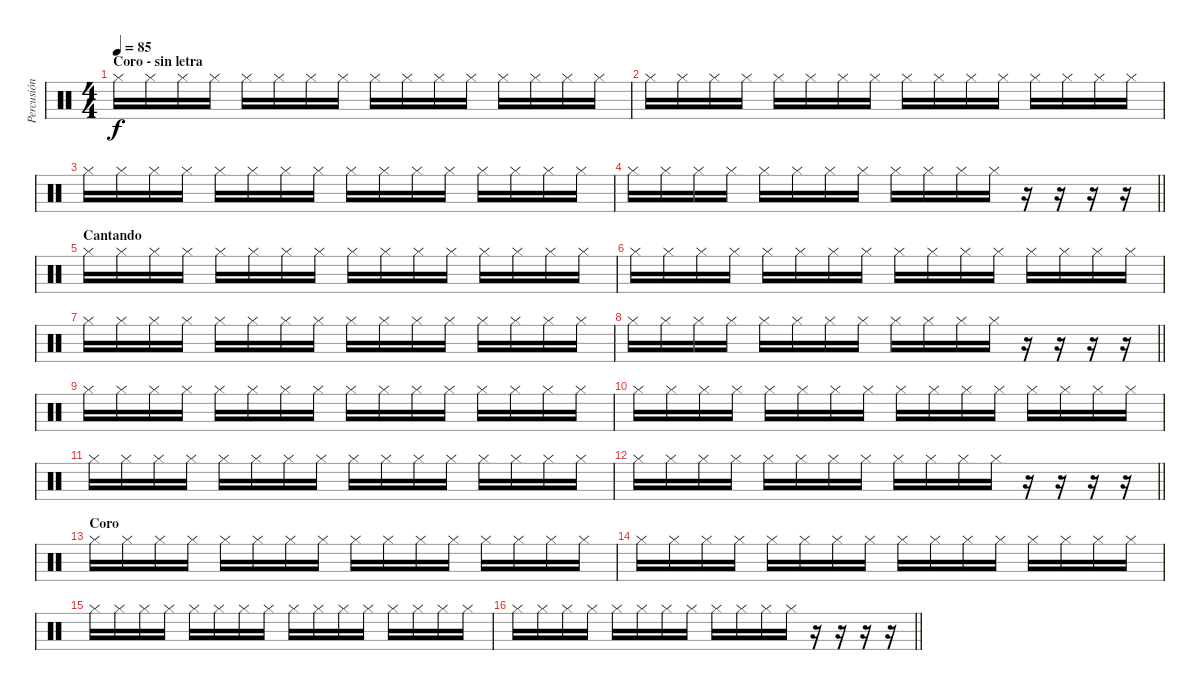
\track ("Percusión" "Percusión") {instrument percussion}
\staff {score}
\articulation defaults
\ts (4 4)
\section ("" "Coro - sin letra")
\tempo 85
\clef neutral
\ks c "Hi-Hat (closed)".16{dy f} "Hi-Hat (closed)".16 "Hi-Hat (closed)".16 "Hi-Hat (closed)".16 "Hi-Hat (closed)".16 "Hi-Hat (closed)".16 "Hi-Hat (closed)".16 "Hi-Hat (closed)".16 "Hi-Hat (closed)".16 "Hi-Hat (closed)".16 "Hi-Hat (closed)".16 "Hi-Hat (closed)".16 "Hi-Hat (closed)".16 "Hi-Hat (closed)".16 "Hi-Hat (closed)".16 "Hi-Hat (closed)".16
|
"Hi-Hat (closed)".16 "Hi-Hat (closed)".16 "Hi-Hat (closed)".16 "Hi-Hat (closed)".16 "Hi-Hat (closed)".16 "Hi-Hat (closed)".16 "Hi-Hat (closed)".16 "Hi-Hat (closed)".16 "Hi-Hat (closed)".16 "Hi-Hat (closed)".16 "Hi-Hat (closed)".16 "Hi-Hat (closed)".16 "Hi-Hat (closed)".16 "Hi-Hat (closed)".16 "Hi-Hat (closed)".16 "Hi-Hat (closed)".16 |
"Hi-Hat (closed)".16 "Hi-Hat (closed)".16 "Hi-Hat (closed)".16 "Hi-Hat (closed)".16 "Hi-Hat (closed)".16 "Hi-Hat (closed)".16 "Hi-Hat (closed)".16 "Hi-Hat (closed)".16 "Hi-Hat (closed)".16 "Hi-Hat (closed)".16 "Hi-Hat (closed)".16 "Hi-Hat (closed)".16 "Hi-Hat (closed)".16 "Hi-Hat (closed)".16 "Hi-Hat (closed)".16 "Hi-Hat (closed)".16 |
\barLineRight lightlight "Hi-Hat (closed)".16 "Hi-Hat (closed)".16 "Hi-Hat (closed)".16 "Hi-Hat (closed)".16 "Hi-Hat (closed)".16 "Hi-Hat (closed)".16 "Hi-Hat (closed)".16 "Hi-Hat (closed)".16 "Hi-Hat (closed)".16 "Hi-Hat (closed)".16 "Hi-Hat (closed)".16 "Hi-Hat (closed)".16
r.16 r.16 r.16 r.16 |
\section ("" "Cantando")
"Hi-Hat (closed)".16 "Hi-Hat (closed)".16 "Hi-Hat (closed)".16 "Hi-Hat (closed)".16 "Hi-Hat (closed)".16 "Hi-Hat (closed)".16 "Hi-Hat (closed)".16 "Hi-Hat (closed)".16 "Hi-Hat (closed)".16 "Hi-Hat (closed)".16 "Hi-Hat (closed)".16 "Hi-Hat (closed)".16 "Hi-Hat (closed)".16 "Hi-Hat (closed)".16 "Hi-Hat (closed)".16 "Hi-Hat (closed)".16 |
"Hi-Hat (closed)".16 "Hi-Hat (closed)".16 "Hi-Hat (closed)".16 "Hi-Hat (closed)".16 "Hi-Hat (closed)".16 "Hi-Hat (closed)".16 "Hi-Hat (closed)".16 "Hi-Hat (closed)".16 "Hi-Hat (closed)".16 "Hi-Hat (closed)".16 "Hi-Hat (closed)".16 "Hi-Hat (closed)".16 "Hi-Hat (closed)".16 "Hi-Hat (closed)".16 "Hi-Hat (closed)".16 "Hi-Hat (closed)".16 |
"Hi-Hat (closed)".16 "Hi-Hat (closed)".16 "Hi-Hat (closed)".16 "Hi-Hat (closed)".16 "Hi-Hat (closed)".16 "Hi-Hat (closed)".16 "Hi-Hat (closed)".16 "Hi-Hat (closed)".16 "Hi-Hat (closed)".16 "Hi-Hat (closed)".16 "Hi-Hat (closed)".16 "Hi-Hat (closed)".16 "Hi-Hat (closed)".16 "Hi-Hat (closed)".16 "Hi-Hat (closed)".16 "Hi-Hat (closed)".16 |
\barLineRight lightlight "Hi-Hat (closed)".16 "Hi-Hat (closed)".16 "Hi-Hat (closed)".16 "Hi-Hat (closed)".16 "Hi-Hat (closed)".16 "Hi-Hat (closed)".16 "Hi-Hat (closed)".16 "Hi-Hat (closed)".16 "Hi-Hat (closed)".16 "Hi-Hat (closed)".16 "Hi-Hat (closed)".16 "Hi-Hat (closed)".16
r.16 r.16 r.16 r.16 |
"Hi-Hat (closed)".16 "Hi-Hat (closed)".16 "Hi-Hat (closed)".16 "Hi-Hat (closed)".16 "Hi-Hat (closed)".16 "Hi-Hat (closed)".16 "Hi-Hat (closed)".16 "Hi-Hat (closed)".16 "Hi-Hat (closed)".16 "Hi-Hat (closed)".16 "Hi-Hat (closed)".16 "Hi-Hat (closed)".16 "Hi-Hat (closed)".16 "Hi-Hat (closed)".16 "Hi-Hat (closed)".16 "Hi-Hat (closed)".16 |
"Hi-Hat (closed)".16 "Hi-Hat (closed)".16 "Hi-Hat (closed)".16 "Hi-Hat (closed)".16 "Hi-Hat (closed)".16 "Hi-Hat (closed)".16 "Hi-Hat (closed)".16 "Hi-Hat (closed)".16 "Hi-Hat (closed)".16 "Hi-Hat (closed)".16 "Hi-Hat (closed)".16 "Hi-Hat (closed)".16 "Hi-Hat (closed)".16 "Hi-Hat (closed)".16 "Hi-Hat (closed)".16 "Hi-Hat (closed)".16 |
"Hi-Hat (closed)".16 "Hi-Hat (closed)".16 "Hi-Hat (closed)".16 "Hi-Hat (closed)".16 "Hi-Hat (closed)".16 "Hi-Hat (closed)".16 "Hi-Hat (closed)".16 "Hi-Hat (closed)".16 "Hi-Hat (closed)".16 "Hi-Hat (closed)".16 "Hi-Hat (closed)".16 "Hi-Hat (closed)".16 "Hi-Hat (closed)".16 "Hi-Hat (closed)".16 "Hi-Hat (closed)".16 "Hi-Hat (closed)".16 |
\barLineRight lightlight "Hi-Hat (closed)".16 "Hi-Hat (closed)".16 "Hi-Hat (closed)".16 "Hi-Hat (closed)".16 "Hi-Hat (closed)".16 "Hi-Hat (closed)".16 "Hi-Hat (closed)".16 "Hi-Hat (closed)".16 "Hi-Hat (closed)".16 "Hi-Hat (closed)".16 "Hi-Hat (closed)".16 "Hi-Hat (closed)".16
r.16 r.16 r.16 r.16 |
\section ("" "Coro")
"Hi-Hat (closed)".16 "Hi-Hat (closed)".16 "Hi-Hat (closed)".16 "Hi-Hat (closed)".16 "Hi-Hat (closed)".16 "Hi-Hat (closed)".16 "Hi-Hat (closed)".16 "Hi-Hat (closed)".16 "Hi-Hat (closed)".16 "Hi-Hat (closed)".16 "Hi-Hat (closed)".16 "Hi-Hat (closed)".16 "Hi-Hat (closed)".16 "Hi-Hat (closed)".16 "Hi-Hat (closed)".16 "Hi-Hat (closed)".16 |
"Hi-Hat (closed)".16 "Hi-Hat (closed)".16 "Hi-Hat (closed)".16 "Hi-Hat (closed)".16 "Hi-Hat (closed)".16 "Hi-Hat (closed)".16 "Hi-Hat (closed)".16 "Hi-Hat (closed)".16 "Hi-Hat (closed)".16 "Hi-Hat (closed)".16 "Hi-Hat (closed)".16 "Hi-Hat (closed)".16 "Hi-Hat (closed)".16 "Hi-Hat (closed)".16 "Hi-Hat (closed)".16 "Hi-Hat (closed)".16 |
"Hi-Hat (closed)".16 "Hi-Hat (closed)".16 "Hi-Hat (closed)".16 "Hi-Hat (closed)".16 "Hi-Hat (closed)".16 "Hi-Hat (closed)".16 "Hi-Hat (closed)".16 "Hi-Hat (closed)".16 "Hi-Hat (closed)".16 "Hi-Hat (closed)".16 "Hi-Hat (closed)".16 "Hi-Hat (closed)".16 "Hi-Hat (closed)".16 "Hi-Hat (closed)".16 "Hi-Hat (closed)".16 "Hi-Hat (closed)".16 |
\barLineRight lightlight "Hi-Hat (closed)".16 "Hi-Hat (closed)".16 "Hi-Hat (closed)".16 "Hi-Hat (closed)".16 "Hi-Hat (closed)".16 "Hi-Hat (closed)".16 "Hi-Hat (closed)".16 "Hi-Hat (closed)".16 "Hi-Hat (closed)".16 "Hi-Hat (closed)".16 "Hi-Hat (closed)".16 "Hi-Hat (closed)".16
r.16 r.16 r.16 r.16
